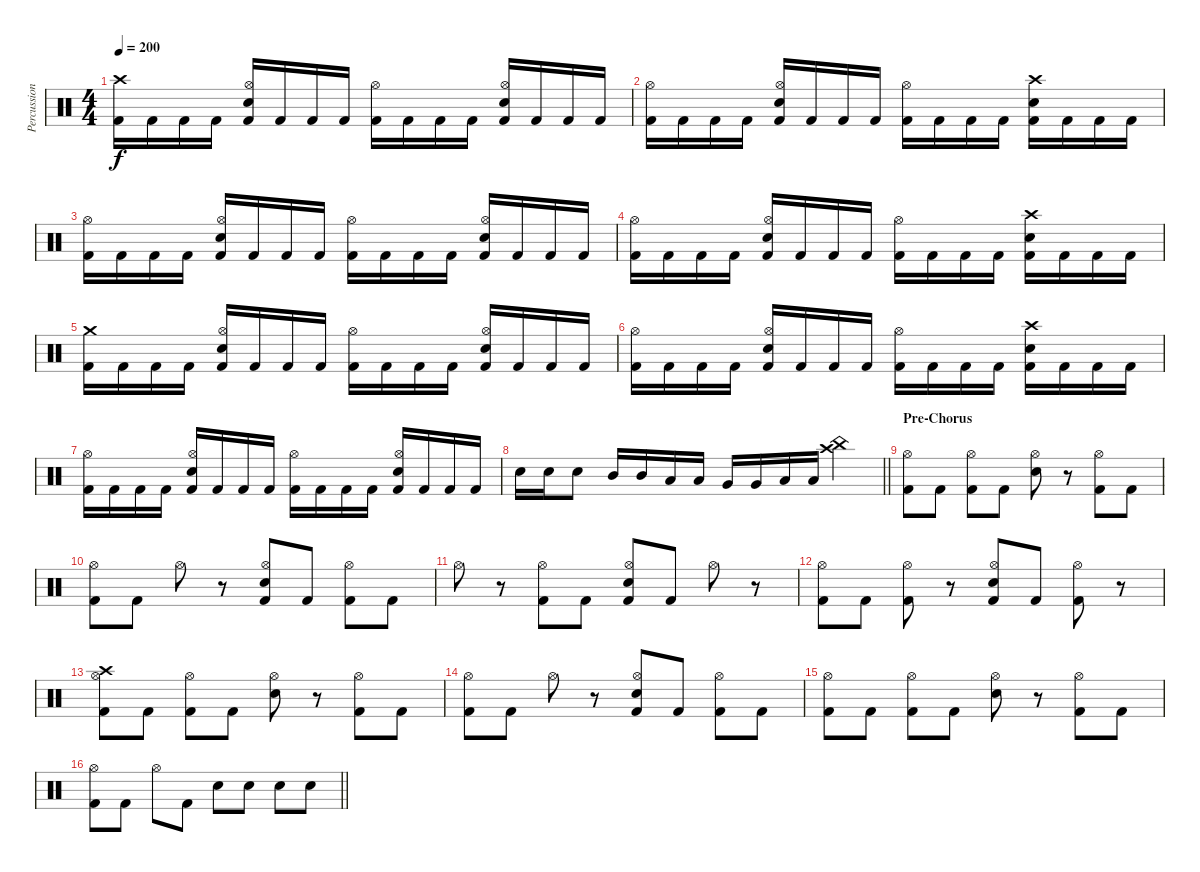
\track ("Percussion" "Percussion") {instrument percussion}
\staff {score}
\articulation defaults
\ts (4 4)
\tempo 200
\clef neutral
\ks c
("Crash high (hit)" "Kick (hit) 2").16{dy f} "Kick (hit) 2".16 "Kick (hit) 2".16 "Kick (hit) 2".16 ("Hi-Hat (open)" "Electric Snare (hit)" "Kick (hit) 2").16 "Kick (hit) 2".16 "Kick (hit) 2".16 "Kick (hit) 2".16 ("Hi-Hat (open)" "Kick (hit) 2").16 "Kick (hit) 2".16 "Kick (hit) 2".16 "Kick (hit) 2".16 ("Hi-Hat (open)" "Electric Snare (hit)" "Kick (hit) 2").16 "Kick (hit) 2".16 "Kick (hit) 2".16 "Kick (hit) 2".16 |
("Hi-Hat (open)" "Kick (hit) 2").16 "Kick (hit) 2".16 "Kick (hit) 2".16 "Kick (hit) 2".16 ("Hi-Hat (open)" "Electric Snare (hit)" "Kick (hit) 2").16 "Kick (hit) 2".16 "Kick (hit) 2".16 "Kick (hit) 2".16 ("Hi-Hat (open)" "Kick (hit) 2").16 "Kick (hit) 2".16 "Kick (hit) 2".16 "Kick (hit) 2".16 ("Crash high (hit)" "Electric Snare (hit)" "Kick (hit) 2").16 "Kick (hit) 2".16 "Kick (hit) 2".16 "Kick (hit) 2".16 |
("Hi-Hat (open)" "Kick (hit) 2").16 "Kick (hit) 2".16 "Kick (hit) 2".16 "Kick (hit) 2".16 ("Hi-Hat (open)" "Electric Snare (hit)" "Kick (hit) 2").16 "Kick (hit) 2".16 "Kick (hit) 2".16 "Kick (hit) 2".16 ("Hi-Hat (open)" "Kick (hit) 2").16 "Kick (hit) 2".16 "Kick (hit) 2".16 "Kick (hit) 2".16 ("Hi-Hat (open)" "Electric Snare (hit)" "Kick (hit) 2").16 "Kick (hit) 2".16 "Kick (hit) 2".16 "Kick (hit) 2".16 |
("Hi-Hat (open)" "Kick (hit) 2").16 "Kick (hit) 2".16 "Kick (hit) 2".16 "Kick (hit) 2".16 ("Hi-Hat (open)" "Electric Snare (hit)" "Kick (hit) 2").16 "Kick (hit) 2".16 "Kick (hit) 2".16 "Kick (hit) 2".16 ("Hi-Hat (open)" "Kick (hit) 2").16 "Kick (hit) 2".16 "Kick (hit) 2".16 "Kick (hit) 2".16 ("Crash high (hit)" "Electric Snare (hit)" "Kick (hit) 2").16 "Kick (hit) 2".16 "Kick (hit) 2".16 "Kick (hit) 2".16 |
("Crash medium (hit)" "Kick (hit) 2").16 "Kick (hit) 2".16 "Kick (hit) 2".16 "Kick (hit) 2".16 ("Hi-Hat (open)" "Electric Snare (hit)" "Kick (hit) 2").16 "Kick (hit) 2".16 "Kick (hit) 2".16 "Kick (hit) 2".16 ("Hi-Hat (open)" "Kick (hit) 2").16 "Kick (hit) 2".16 "Kick (hit) 2".16 "Kick (hit) 2".16 ("Hi-Hat (open)" "Electric Snare (hit)" "Kick (hit) 2").16 "Kick (hit) 2".16 "Kick (hit) 2".16 "Kick (hit) 2".16 |
("Hi-Hat (open)" "Kick (hit) 2").16 "Kick (hit) 2".16 "Kick (hit) 2".16 "Kick (hit) 2".16 ("Hi-Hat (open)" "Electric Snare (hit)" "Kick (hit) 2").16 "Kick (hit) 2".16 "Kick (hit) 2".16 "Kick (hit) 2".16 ("Hi-Hat (open)" "Kick (hit) 2").16 "Kick (hit) 2".16 "Kick (hit) 2".16 "Kick (hit) 2".16 ("Crash high (hit)" "Electric Snare (hit)" "Kick (hit) 2").16 "Kick (hit) 2".16 "Kick (hit) 2".16 "Kick (hit) 2".16 |
("Hi-Hat (open)" "Kick (hit) 2").16 "Kick (hit) 2".16 "Kick (hit) 2".16 "Kick (hit) 2".16 ("Hi-Hat (open)" "Electric Snare (hit)" "Kick (hit) 2").16 "Kick (hit) 2".16 "Kick (hit) 2".16 "Kick (hit) 2".16 ("Hi-Hat (open)" "Kick (hit) 2").16 "Kick (hit) 2".16 "Kick (hit) 2".16 "Kick (hit) 2".16 ("Hi-Hat (open)" "Electric Snare (hit)" "Kick (hit) 2").16 "Kick (hit) 2".16 "Kick (hit) 2".16 "Kick (hit) 2".16 |
\barLineRight lightlight "Electric Snare (hit)".16 "Electric Snare (hit)".16 "Electric Snare (hit)".8 "Mid Tom (hit)".16 "Mid Tom (hit)".16 "Low Tom (hit)".16 "Low Tom (hit)".16 "Very Low Tom (hit)".16 "Very Low Tom (hit)".16 "Low Floor Tom (hit)".16 "Low Floor Tom (hit)".16
("Crash high (hit)" "China (hit)").4 |
\section ("" "Pre-Chorus")
("Hi-Hat (open)" "Kick (hit) 2").8 "Kick (hit) 2".8 ("Hi-Hat (open)" "Kick (hit) 2").8 "Kick (hit) 2".8 ("Hi-Hat (open)" "Electric Snare (hit)").8 r.8 ("Hi-Hat (open)" "Kick (hit) 2").8 "Kick (hit) 2".8 |
("Hi-Hat (open)" "Kick (hit) 2").8 "Kick (hit) 2".8 "Hi-Hat (open)".8 r.8 ("Hi-Hat (open)" "Electric Snare (hit)" "Kick (hit) 2").8 "Kick (hit) 2".8 ("Hi-Hat (open)" "Kick (hit) 2").8 "Kick (hit) 2".8 |
"Hi-Hat (open)".8 r.8 ("Hi-Hat (open)" "Kick (hit) 2").8 "Kick (hit) 2".8 ("Hi-Hat (open)" "Electric Snare (hit)" "Kick (hit) 2").8 "Kick (hit) 2".8 "Hi-Hat (open)".8 r.8 |
("Hi-Hat (open)" "Kick (hit) 2").8 "Kick (hit) 2".8 ("Hi-Hat (open)" "Kick (hit) 2").8 r.8 ("Hi-Hat (open)" "Electric Snare (hit)" "Kick (hit) 2").8 "Kick (hit) 2".8 ("Hi-Hat (open)" "Kick (hit) 2").8 r.8 |
("Crash high (hit)" "Hi-Hat (open)" "Kick (hit) 2").8 "Kick (hit) 2".8 ("Hi-Hat (open)" "Kick (hit) 2").8 "Kick (hit) 2".8 ("Hi-Hat (open)" "Electric Snare (hit)").8 r.8 ("Hi-Hat (open)" "Kick (hit) 2").8 "Kick (hit) 2".8 |
("Hi-Hat (open)" "Kick (hit) 2").8 "Kick (hit) 2".8 "Hi-Hat (open)".8 r.8 ("Hi-Hat (open)" "Electric Snare (hit)" "Kick (hit) 2").8 "Kick (hit) 2".8 ("Hi-Hat (open)" "Kick (hit) 2").8 "Kick (hit) 2".8 |
("Hi-Hat (open)" "Kick (hit) 2").8 "Kick (hit) 2".8 ("Hi-Hat (open)" "Kick (hit) 2").8 "Kick (hit) 2".8 ("Hi-Hat (open)" "Electric Snare (hit)").8 r.8 ("Hi-Hat (open)" "Kick (hit) 2").8 "Kick (hit) 2".8 |
\barLineRight lightlight
("Hi-Hat (open)" "Kick (hit) 2").8 "Kick (hit) 2".8 "Hi-Hat (open)".8 "Kick (hit) 2".8 "Electric Snare (hit)".8 "Electric Snare (hit)".8 "Electric Snare (hit)".8 "Electric Snare (hit)".8
